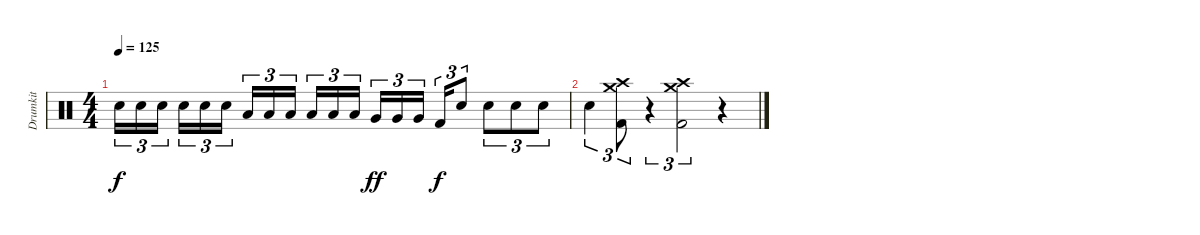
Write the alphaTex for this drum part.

\track ("Drumkit" "Drumkit") {instrument percussion}
\staff {score}
\articulation defaults
\ts (4 4)
\tempo 125
\clef neutral
\ks c "Electric Snare (hit)".16{tu (3 2) dy f} "Electric Snare (hit)".16{tu (3 2)} "Electric Snare (hit)".16{tu (3 2) beam splitsecondary} "Electric Snare (hit)".16{tu (3 2)} "Electric Snare (hit)".16{tu (3 2)} "Electric Snare (hit)".16{tu (3 2)} "Low Tom (hit)".16{tu (3 2)} "Low Tom (hit)".16{tu (3 2)} "Low Tom (hit)".16{tu (3 2) beam splitsecondary} "Low Tom (hit)".16{tu (3 2)} "Low Tom (hit)".16{tu (3 2)} "Low Tom (hit)".16{tu (3 2)} "Very Low Tom (hit)".16{tu (3 2) dy ff} "Very Low Tom (hit)".16{tu (3 2)} "Very Low Tom (hit)".16{tu (3 2) beam splitsecondary} "Kick (hit) 2".16{tu (3 2) dy f} "Electric Snare (hit)".8{tu (3 2)} "Electric Snare (hit)".8{tu (3 2)} "Electric Snare (hit)".8{tu (3 2)} "Electric Snare (hit)".8{tu (3 2)}
|
"Electric Snare (hit)".4{tu (3 2)} ("Crash high (hit)" "Crash medium (hit)" "Kick (hit) 2").8{tu (3 2)} r.4{tu (3 2)} ("Crash high (hit)" "Crash medium (hit)" "Kick (hit) 2").2{tu (3 2)} r.4
